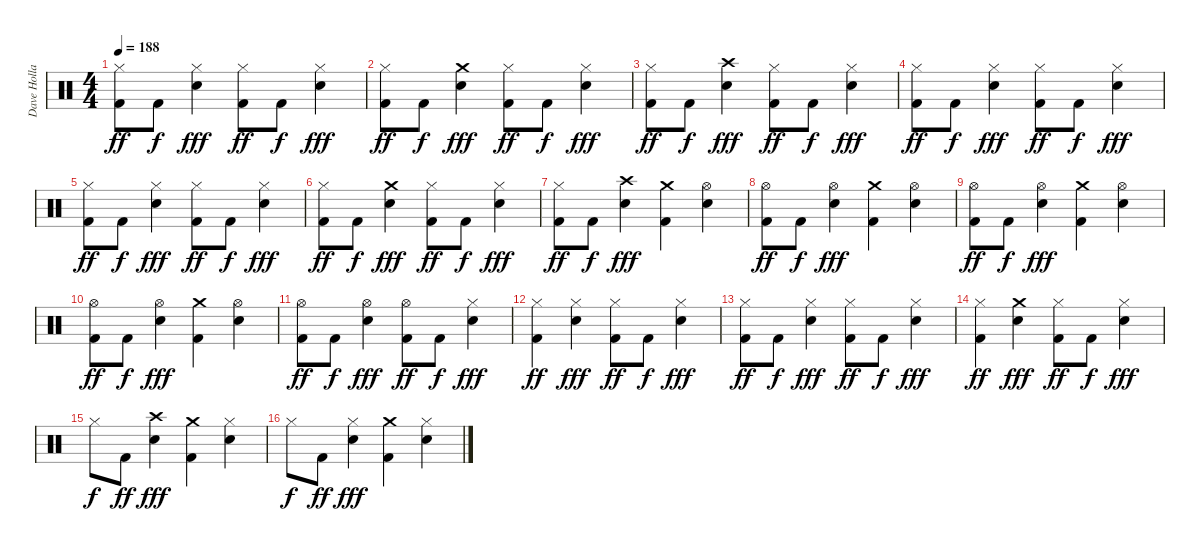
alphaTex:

\track ("Dave Holland" "Dave Holla") {instrument percussion}
\staff {score}
\articulation defaults
\ts (4 4)
\tempo 188
\clef neutral
\ks c
("Kick (hit) 2" "Hi-Hat (closed)").8{dy ff} "Kick (hit) 2".8{dy f} ("Snare (hit) 2" "Hi-Hat (closed)").4{dy fff} ("Kick (hit) 2" "Hi-Hat (closed)").8{dy ff} "Kick (hit) 2".8{dy f} ("Snare (hit) 2" "Hi-Hat (closed)").4{dy fff} |
("Kick (hit) 2" "Hi-Hat (closed)").8{dy ff} "Kick (hit) 2".8{dy f} ("Snare (hit) 2" "Crash medium (hit)").4{dy fff} ("Kick (hit) 2" "Hi-Hat (closed)").8{dy ff} "Kick (hit) 2".8{dy f} ("Snare (hit) 2" "Hi-Hat (closed)").4{dy fff} |
("Kick (hit) 2" "Hi-Hat (closed)").8{dy ff} "Kick (hit) 2".8{dy f} ("Snare (hit) 2" "Crash high (hit)").4{dy fff} ("Kick (hit) 2" "Hi-Hat (closed)").8{dy ff} "Kick (hit) 2".8{dy f} ("Snare (hit) 2" "Hi-Hat (closed)").4{dy fff} |
("Kick (hit) 2" "Hi-Hat (closed)").8{dy ff} "Kick (hit) 2".8{dy f} ("Snare (hit) 2" "Hi-Hat (closed)").4{dy fff} ("Kick (hit) 2" "Hi-Hat (closed)").8{dy ff} "Kick (hit) 2".8{dy f} ("Snare (hit) 2" "Hi-Hat (closed)").4{dy fff} |
("Kick (hit) 2" "Hi-Hat (closed)").8{dy ff} "Kick (hit) 2".8{dy f} ("Snare (hit) 2" "Hi-Hat (closed)").4{dy fff} ("Kick (hit) 2" "Hi-Hat (closed)").8{dy ff} "Kick (hit) 2".8{dy f} ("Snare (hit) 2" "Hi-Hat (closed)").4{dy fff} |
("Kick (hit) 2" "Hi-Hat (closed)").8{dy ff} "Kick (hit) 2".8{dy f} ("Snare (hit) 2" "Crash medium (hit)").4{dy fff} ("Kick (hit) 2" "Hi-Hat (closed)").8{dy ff} "Kick (hit) 2".8{dy f} ("Snare (hit) 2" "Hi-Hat (closed)").4{dy fff} |
("Kick (hit) 2" "Hi-Hat (closed)").8{dy ff} "Kick (hit) 2".8{dy f} ("Snare (hit) 2" "Crash high (hit)").4{dy fff} ("Kick (hit) 2" "Crash medium (hit)").4 ("Snare (hit) 2" "Hi-Hat (open)").4 |
("Kick (hit) 2" "Hi-Hat (open)").8{dy ff} "Kick (hit) 2".8{dy f} ("Snare (hit) 2" "Hi-Hat (open)").4{dy fff} ("Kick (hit) 2" "Crash medium (hit)").4 ("Snare (hit) 2" "Hi-Hat (open)").4 |
("Kick (hit) 2" "Hi-Hat (open)").8{dy ff} "Kick (hit) 2".8{dy f} ("Snare (hit) 2" "Hi-Hat (open)").4{dy fff} ("Kick (hit) 2" "Crash medium (hit)").4 ("Snare (hit) 2" "Hi-Hat (open)").4 |
("Kick (hit) 2" "Hi-Hat (open)").8{dy ff} "Kick (hit) 2".8{dy f} ("Snare (hit) 2" "Hi-Hat (open)").4{dy fff} ("Kick (hit) 2" "Crash medium (hit)").4 ("Snare (hit) 2" "Hi-Hat (open)").4 |
("Kick (hit) 2" "Hi-Hat (open)").8{dy ff} "Kick (hit) 2".8{dy f} ("Snare (hit) 2" "Hi-Hat (open)").4{dy fff} ("Kick (hit) 2" "Hi-Hat (open)").8{dy ff} "Kick (hit) 2".8{dy f} ("Snare (hit) 2" "Hi-Hat (closed)").4{dy fff} |
("Kick (hit) 2" "Hi-Hat (closed)").4{dy ff} ("Snare (hit) 2" "Hi-Hat (closed)").4{dy fff} ("Kick (hit) 2" "Hi-Hat (closed)").8{dy ff} "Kick (hit) 2".8{dy f} ("Snare (hit) 2" "Hi-Hat (closed)").4{dy fff} |
("Kick (hit) 2" "Hi-Hat (closed)").8{dy ff} "Kick (hit) 2".8{dy f} ("Snare (hit) 2" "Hi-Hat (closed)").4{dy fff} ("Kick (hit) 2" "Hi-Hat (closed)").8{dy ff} "Kick (hit) 2".8{dy f} ("Snare (hit) 2" "Hi-Hat (closed)").4{dy fff} |
("Kick (hit) 2" "Hi-Hat (closed)").4{dy ff} ("Snare (hit) 2" "Crash medium (hit)").4{dy fff} ("Kick (hit) 2" "Hi-Hat (closed)").8{dy ff} "Kick (hit) 2".8{dy f} ("Snare (hit) 2" "Hi-Hat (closed)").4{dy fff} |
"Hi-Hat (closed)".8{dy f} "Kick (hit) 2".8{dy ff} ("Snare (hit) 2" "Crash high (hit)").4{dy fff} ("Kick (hit) 2" "Crash medium (hit)").4 ("Snare (hit) 2" "Hi-Hat (closed)").4 |
"Hi-Hat (closed)".8{dy f} "Kick (hit) 2".8{dy ff} ("Snare (hit) 2" "Hi-Hat (closed)").4{dy fff} ("Kick (hit) 2" "Crash medium (hit)").4 ("Snare (hit) 2" "Hi-Hat (closed)").4
